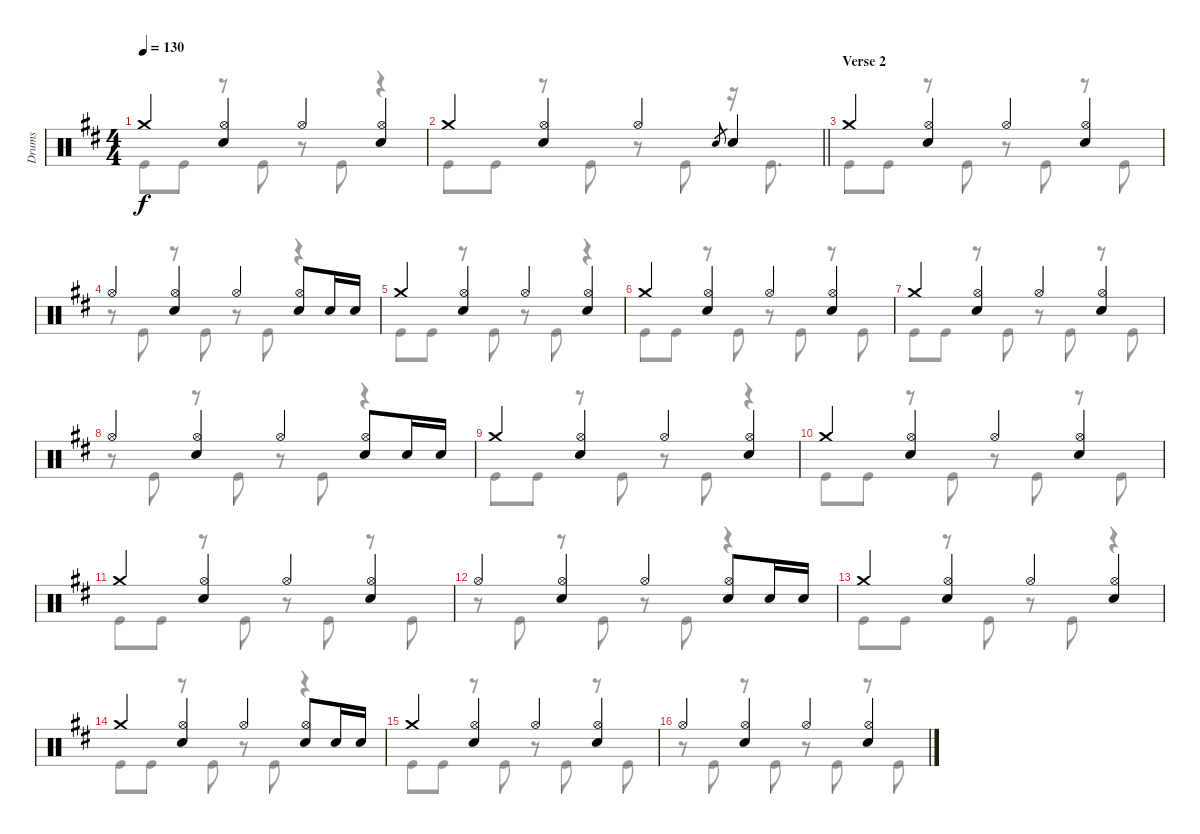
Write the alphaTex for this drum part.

\track ("Drums" "Drums") {instrument percussion}
\staff {score}
\articulation defaults
\voice
\ts (4 4)
\tempo 130
\clef neutral
\ks d "Crash medium (hit)".4{dy f}
("Hi-Hat (open)" "Electric Snare (hit)").4 "Hi-Hat (open)".4 ("Hi-Hat (open)" "Electric Snare (hit)").4 |
\barLineRight lightlight "Crash medium (hit)".4
("Hi-Hat (open)" "Electric Snare (hit)").4 "Hi-Hat (open)".4 "Electric Snare (hit)".8{gr} "Electric Snare (hit)".4 |
\section ("" "Verse 2")
"Crash medium (hit)".4 ("Hi-Hat (open)" "Electric Snare (hit)").4 "Hi-Hat (open)".4 ("Hi-Hat (open)" "Electric Snare (hit)").4 |
"Hi-Hat (open)".4 ("Hi-Hat (open)" "Electric Snare (hit)").4 "Hi-Hat (open)".4 ("Hi-Hat (open)" "Electric Snare (hit)").8 "Electric Snare (hit)".16 "Electric Snare (hit)".16 |
"Crash medium (hit)".4 ("Hi-Hat (open)" "Electric Snare (hit)").4 "Hi-Hat (open)".4 ("Hi-Hat (open)" "Electric Snare (hit)").4 |
"Crash medium (hit)".4 ("Hi-Hat (open)" "Electric Snare (hit)").4 "Hi-Hat (open)".4 ("Hi-Hat (open)" "Electric Snare (hit)").4 |
"Crash medium (hit)".4 ("Hi-Hat (open)" "Electric Snare (hit)").4 "Hi-Hat (open)".4 ("Hi-Hat (open)" "Electric Snare (hit)").4 |
"Hi-Hat (open)".4 ("Hi-Hat (open)" "Electric Snare (hit)").4 "Hi-Hat (open)".4 ("Hi-Hat (open)" "Electric Snare (hit)").8 "Electric Snare (hit)".16 "Electric Snare (hit)".16 |
"Crash medium (hit)".4 ("Hi-Hat (open)" "Electric Snare (hit)").4 "Hi-Hat (open)".4 ("Hi-Hat (open)" "Electric Snare (hit)").4 |
"Crash medium (hit)".4 ("Hi-Hat (open)" "Electric Snare (hit)").4 "Hi-Hat (open)".4 ("Hi-Hat (open)" "Electric Snare (hit)").4 |
"Crash medium (hit)".4 ("Hi-Hat (open)" "Electric Snare (hit)").4 "Hi-Hat (open)".4 ("Hi-Hat (open)" "Electric Snare (hit)").4 |
"Hi-Hat (open)".4 ("Hi-Hat (open)" "Electric Snare (hit)").4 "Hi-Hat (open)".4 ("Hi-Hat (open)" "Electric Snare (hit)").8 "Electric Snare (hit)".16 "Electric Snare (hit)".16 |
"Crash medium (hit)".4 ("Hi-Hat (open)" "Electric Snare (hit)").4 "Hi-Hat (open)".4 ("Hi-Hat (open)" "Electric Snare (hit)").4 |
"Crash medium (hit)".4 ("Hi-Hat (open)" "Electric Snare (hit)").4 "Hi-Hat (open)".4 ("Hi-Hat (open)" "Electric Snare (hit)").8 "Electric Snare (hit)".16 "Electric Snare (hit)".16 |
"Crash medium (hit)".4 ("Hi-Hat (open)" "Electric Snare (hit)").4 "Hi-Hat (open)".4 ("Hi-Hat (open)" "Electric Snare (hit)").4 |
"Hi-Hat (open)".4 ("Hi-Hat (open)" "Electric Snare (hit)").4 "Hi-Hat (open)".4 ("Hi-Hat (open)" "Electric Snare (hit)").4
\voice
\clef neutral
\ottava regular
\simile none
\ks d "Kick (hit)".8{dy f} "Kick (hit)".8
r.8 "Kick (hit)".8 r.8 "Kick (hit)".8 r.4 |
\barLineRight lightlight "Kick (hit)".8 "Kick (hit)".8
r.8 "Kick (hit)".8 r.8 "Kick (hit)".8 r.16 "Kick (hit)".8{d} |
"Kick (hit)".8 "Kick (hit)".8 r.8 "Kick (hit)".8 r.8 "Kick (hit)".8 r.8 "Kick (hit)".8 |
r.8 "Kick (hit)".8 r.8 "Kick (hit)".8 r.8 "Kick (hit)".8 r.4 |
"Kick (hit)".8 "Kick (hit)".8 r.8 "Kick (hit)".8 r.8 "Kick (hit)".8 r.4 |
"Kick (hit)".8 "Kick (hit)".8 r.8 "Kick (hit)".8 r.8 "Kick (hit)".8 r.8 "Kick (hit)".8 |
"Kick (hit)".8 "Kick (hit)".8 r.8 "Kick (hit)".8 r.8 "Kick (hit)".8 r.8 "Kick (hit)".8 |
r.8 "Kick (hit)".8 r.8 "Kick (hit)".8 r.8 "Kick (hit)".8 r.4 |
"Kick (hit)".8 "Kick (hit)".8 r.8 "Kick (hit)".8 r.8 "Kick (hit)".8 r.4 |
"Kick (hit)".8 "Kick (hit)".8 r.8 "Kick (hit)".8 r.8 "Kick (hit)".8 r.8 "Kick (hit)".8 |
"Kick (hit)".8 "Kick (hit)".8 r.8 "Kick (hit)".8 r.8 "Kick (hit)".8 r.8 "Kick (hit)".8 |
r.8 "Kick (hit)".8 r.8 "Kick (hit)".8 r.8 "Kick (hit)".8 r.4 |
"Kick (hit)".8 "Kick (hit)".8 r.8 "Kick (hit)".8 r.8 "Kick (hit)".8 r.4 |
"Kick (hit)".8 "Kick (hit)".8 r.8 "Kick (hit)".8 r.8 "Kick (hit)".8 r.4 |
"Kick (hit)".8 "Kick (hit)".8 r.8 "Kick (hit)".8 r.8 "Kick (hit)".8 r.8 "Kick (hit)".8 |
r.8 "Kick (hit)".8 r.8 "Kick (hit)".8 r.8 "Kick (hit)".8 r.8 "Kick (hit)".8
